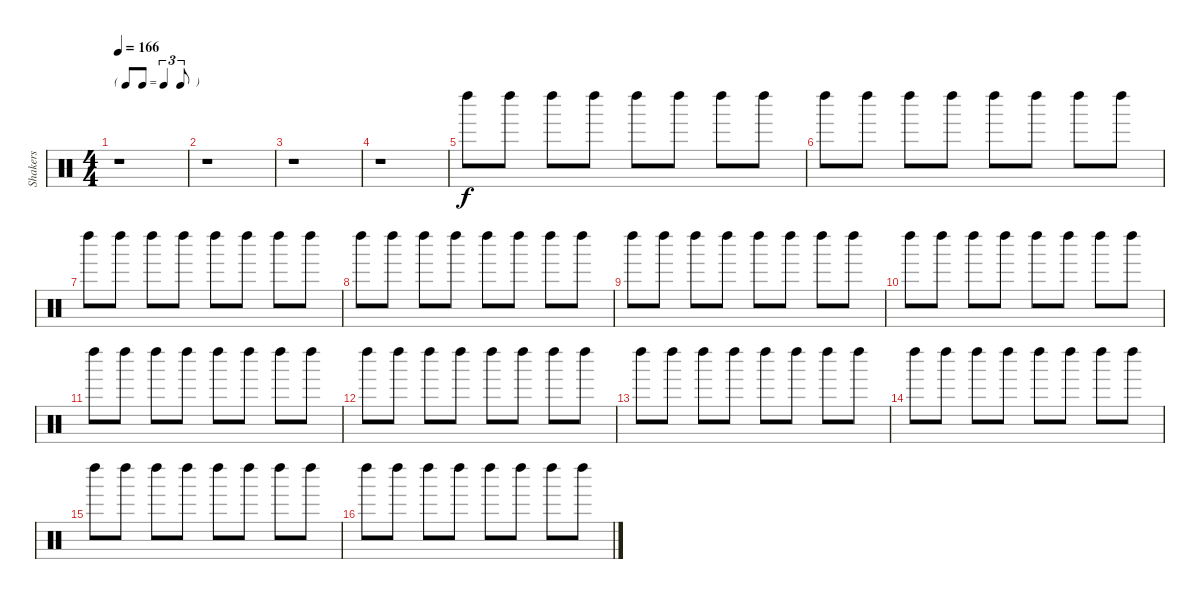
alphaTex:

\track ("Shakers" "Shakers") {instrument percussion}
\staff {score}
\articulation defaults
\ts (4 4)
\tf triplet8th
\tempo 166
\clef neutral
\ks c
r.1{dy f} |
r.1 |
r.1 |
r.1 |
"Left Maraca (hit)".8 "Left Maraca (hit)".8 "Left Maraca (hit)".8 "Left Maraca (hit)".8 "Left Maraca (hit)".8 "Left Maraca (hit)".8 "Left Maraca (hit)".8 "Left Maraca (hit)".8 |
"Left Maraca (hit)".8 "Left Maraca (hit)".8 "Left Maraca (hit)".8 "Left Maraca (hit)".8 "Left Maraca (hit)".8 "Left Maraca (hit)".8 "Left Maraca (hit)".8 "Left Maraca (hit)".8 |
"Left Maraca (hit)".8 "Left Maraca (hit)".8 "Left Maraca (hit)".8 "Left Maraca (hit)".8 "Left Maraca (hit)".8 "Left Maraca (hit)".8 "Left Maraca (hit)".8 "Left Maraca (hit)".8 |
"Left Maraca (hit)".8 "Left Maraca (hit)".8 "Left Maraca (hit)".8 "Left Maraca (hit)".8 "Left Maraca (hit)".8 "Left Maraca (hit)".8 "Left Maraca (hit)".8 "Left Maraca (hit)".8 |
"Left Maraca (hit)".8 "Left Maraca (hit)".8 "Left Maraca (hit)".8 "Left Maraca (hit)".8 "Left Maraca (hit)".8 "Left Maraca (hit)".8 "Left Maraca (hit)".8 "Left Maraca (hit)".8 |
"Left Maraca (hit)".8 "Left Maraca (hit)".8 "Left Maraca (hit)".8 "Left Maraca (hit)".8 "Left Maraca (hit)".8 "Left Maraca (hit)".8 "Left Maraca (hit)".8 "Left Maraca (hit)".8 |
"Left Maraca (hit)".8 "Left Maraca (hit)".8 "Left Maraca (hit)".8 "Left Maraca (hit)".8 "Left Maraca (hit)".8 "Left Maraca (hit)".8 "Left Maraca (hit)".8 "Left Maraca (hit)".8 |
"Left Maraca (hit)".8 "Left Maraca (hit)".8 "Left Maraca (hit)".8 "Left Maraca (hit)".8 "Left Maraca (hit)".8 "Left Maraca (hit)".8 "Left Maraca (hit)".8 "Left Maraca (hit)".8 |
"Left Maraca (hit)".8 "Left Maraca (hit)".8 "Left Maraca (hit)".8 "Left Maraca (hit)".8 "Left Maraca (hit)".8 "Left Maraca (hit)".8 "Left Maraca (hit)".8 "Left Maraca (hit)".8 |
"Left Maraca (hit)".8 "Left Maraca (hit)".8 "Left Maraca (hit)".8 "Left Maraca (hit)".8 "Left Maraca (hit)".8 "Left Maraca (hit)".8 "Left Maraca (hit)".8 "Left Maraca (hit)".8 |
"Left Maraca (hit)".8 "Left Maraca (hit)".8 "Left Maraca (hit)".8 "Left Maraca (hit)".8 "Left Maraca (hit)".8 "Left Maraca (hit)".8 "Left Maraca (hit)".8 "Left Maraca (hit)".8 |
"Left Maraca (hit)".8 "Left Maraca (hit)".8 "Left Maraca (hit)".8 "Left Maraca (hit)".8 "Left Maraca (hit)".8 "Left Maraca (hit)".8 "Left Maraca (hit)".8 "Left Maraca (hit)".8
